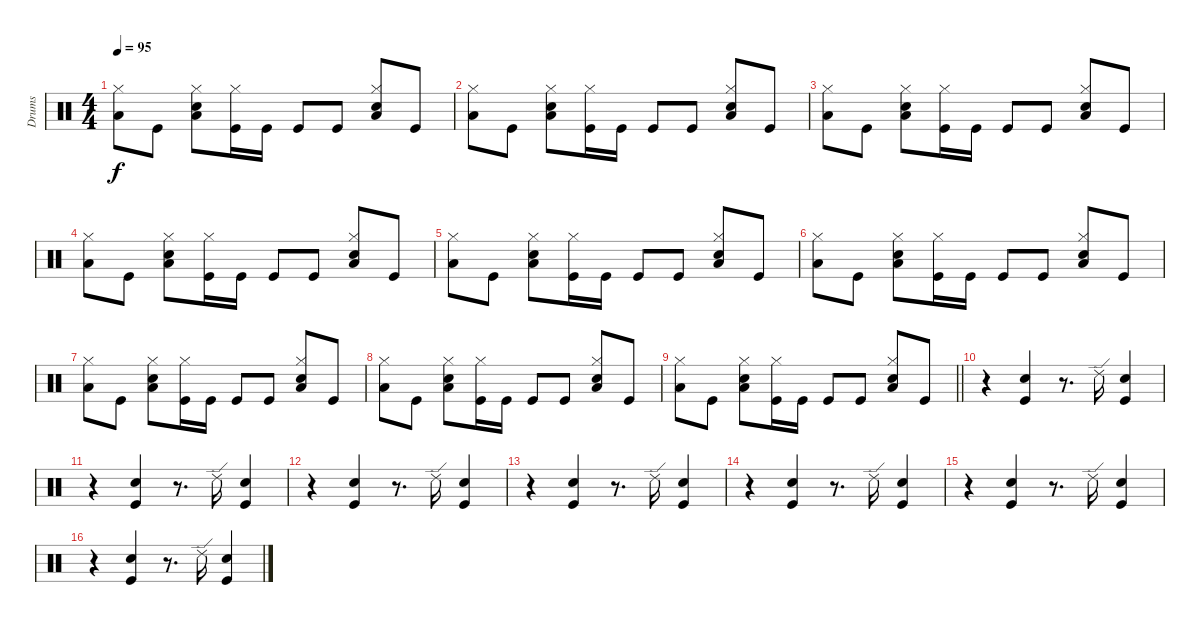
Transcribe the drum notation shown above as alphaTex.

\track ("Drums" "Drums") {instrument percussion}
\staff {score}
\articulation defaults
\ts (4 4)
\tempo 95
\clef neutral
\ks c
("Low Floor Tom (hit)" "Hi-Hat (closed)").8{dy f} "Kick (hit)".8 ("Low Floor Tom (hit)" "Snare (hit) 2" "Hi-Hat (closed)").8 ("Kick (hit)" "Hi-Hat (closed)").16 "Kick (hit)".16 "Kick (hit)".8 "Kick (hit)".8 ("Low Floor Tom (hit)" "Snare (hit) 2" "Hi-Hat (closed)").8 "Kick (hit)".8 |
("Low Floor Tom (hit)" "Hi-Hat (closed)").8 "Kick (hit)".8 ("Low Floor Tom (hit)" "Snare (hit) 2" "Hi-Hat (closed)").8 ("Kick (hit)" "Hi-Hat (closed)").16 "Kick (hit)".16 "Kick (hit)".8 "Kick (hit)".8 ("Low Floor Tom (hit)" "Snare (hit) 2" "Hi-Hat (closed)").8 "Kick (hit)".8 |
("Low Floor Tom (hit)" "Hi-Hat (closed)").8 "Kick (hit)".8 ("Low Floor Tom (hit)" "Snare (hit) 2" "Hi-Hat (closed)").8 ("Kick (hit)" "Hi-Hat (closed)").16 "Kick (hit)".16 "Kick (hit)".8 "Kick (hit)".8 ("Low Floor Tom (hit)" "Snare (hit) 2" "Hi-Hat (closed)").8 "Kick (hit)".8 |
("Low Floor Tom (hit)" "Hi-Hat (closed)").8 "Kick (hit)".8 ("Low Floor Tom (hit)" "Snare (hit) 2" "Hi-Hat (closed)").8 ("Kick (hit)" "Hi-Hat (closed)").16 "Kick (hit)".16 "Kick (hit)".8 "Kick (hit)".8 ("Low Floor Tom (hit)" "Snare (hit) 2" "Hi-Hat (closed)").8 "Kick (hit)".8 |
("Low Floor Tom (hit)" "Hi-Hat (closed)").8 "Kick (hit)".8 ("Low Floor Tom (hit)" "Snare (hit) 2" "Hi-Hat (closed)").8 ("Kick (hit)" "Hi-Hat (closed)").16 "Kick (hit)".16 "Kick (hit)".8 "Kick (hit)".8 ("Low Floor Tom (hit)" "Snare (hit) 2" "Hi-Hat (closed)").8 "Kick (hit)".8 |
("Low Floor Tom (hit)" "Hi-Hat (closed)").8 "Kick (hit)".8 ("Low Floor Tom (hit)" "Snare (hit) 2" "Hi-Hat (closed)").8 ("Kick (hit)" "Hi-Hat (closed)").16 "Kick (hit)".16 "Kick (hit)".8 "Kick (hit)".8 ("Low Floor Tom (hit)" "Snare (hit) 2" "Hi-Hat (closed)").8 "Kick (hit)".8 |
("Low Floor Tom (hit)" "Hi-Hat (closed)").8 "Kick (hit)".8 ("Low Floor Tom (hit)" "Snare (hit) 2" "Hi-Hat (closed)").8 ("Kick (hit)" "Hi-Hat (closed)").16 "Kick (hit)".16 "Kick (hit)".8 "Kick (hit)".8 ("Low Floor Tom (hit)" "Snare (hit) 2" "Hi-Hat (closed)").8 "Kick (hit)".8 |
("Low Floor Tom (hit)" "Hi-Hat (closed)").8 "Kick (hit)".8 ("Low Floor Tom (hit)" "Snare (hit) 2" "Hi-Hat (closed)").8 ("Kick (hit)" "Hi-Hat (closed)").16 "Kick (hit)".16 "Kick (hit)".8 "Kick (hit)".8 ("Low Floor Tom (hit)" "Snare (hit) 2" "Hi-Hat (closed)").8 "Kick (hit)".8 |
\barLineRight lightlight
("Low Floor Tom (hit)" "Hi-Hat (closed)").8 "Kick (hit)".8 ("Low Floor Tom (hit)" "Snare (hit) 2" "Hi-Hat (closed)").8 ("Kick (hit)" "Hi-Hat (closed)").16 "Kick (hit)".16 "Kick (hit)".8 "Kick (hit)".8 ("Low Floor Tom (hit)" "Snare (hit) 2" "Hi-Hat (closed)").8 "Kick (hit)".8 |
r.4 ("Kick (hit)" "Snare (hit) 2").4 r.8{d} "Ride (edge) 2".16 ("Kick (hit)" "Snare (hit) 2").4 |
r.4 ("Kick (hit)" "Snare (hit) 2").4 r.8{d} "Ride (edge) 2".16 ("Kick (hit)" "Snare (hit) 2").4 |
r.4 ("Kick (hit)" "Snare (hit) 2").4 r.8{d} "Ride (edge) 2".16 ("Kick (hit)" "Snare (hit) 2").4 |
r.4 ("Kick (hit)" "Snare (hit) 2").4 r.8{d} "Ride (edge) 2".16 ("Kick (hit)" "Snare (hit) 2").4 |
r.4 ("Kick (hit)" "Snare (hit) 2").4 r.8{d} "Ride (edge) 2".16 ("Kick (hit)" "Snare (hit) 2").4 |
r.4 ("Kick (hit)" "Snare (hit) 2").4 r.8{d} "Ride (edge) 2".16 ("Kick (hit)" "Snare (hit) 2").4 |
r.4 ("Kick (hit)" "Snare (hit) 2").4 r.8{d} "Ride (edge) 2".16 ("Kick (hit)" "Snare (hit) 2").4
